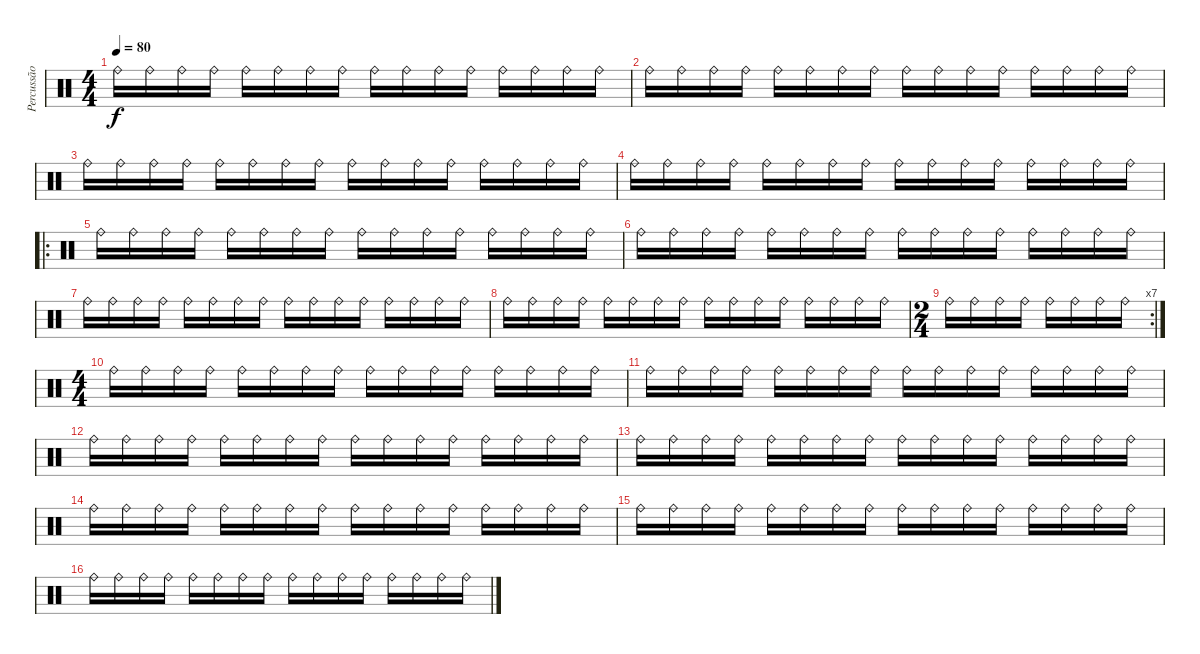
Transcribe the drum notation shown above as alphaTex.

\track ("Percussão" "Percussão") {instrument percussion}
\staff {score}
\articulation defaults
\ts (4 4)
\tempo 80
\clef neutral
\ks c "Ride (bell)".16{dy f} "Ride (bell)".16 "Ride (bell)".16 "Ride (bell)".16 "Ride (bell)".16 "Ride (bell)".16 "Ride (bell)".16 "Ride (bell)".16 "Ride (bell)".16 "Ride (bell)".16 "Ride (bell)".16 "Ride (bell)".16 "Ride (bell)".16 "Ride (bell)".16 "Ride (bell)".16 "Ride (bell)".16
|
"Ride (bell)".16 "Ride (bell)".16 "Ride (bell)".16 "Ride (bell)".16 "Ride (bell)".16 "Ride (bell)".16 "Ride (bell)".16 "Ride (bell)".16 "Ride (bell)".16 "Ride (bell)".16 "Ride (bell)".16 "Ride (bell)".16 "Ride (bell)".16 "Ride (bell)".16 "Ride (bell)".16 "Ride (bell)".16 |
"Ride (bell)".16 "Ride (bell)".16 "Ride (bell)".16 "Ride (bell)".16 "Ride (bell)".16 "Ride (bell)".16 "Ride (bell)".16 "Ride (bell)".16 "Ride (bell)".16 "Ride (bell)".16 "Ride (bell)".16 "Ride (bell)".16 "Ride (bell)".16 "Ride (bell)".16 "Ride (bell)".16 "Ride (bell)".16 |
"Ride (bell)".16 "Ride (bell)".16 "Ride (bell)".16 "Ride (bell)".16 "Ride (bell)".16 "Ride (bell)".16 "Ride (bell)".16 "Ride (bell)".16 "Ride (bell)".16 "Ride (bell)".16 "Ride (bell)".16 "Ride (bell)".16 "Ride (bell)".16 "Ride (bell)".16 "Ride (bell)".16 "Ride (bell)".16 |
\ro "Ride (bell)".16 "Ride (bell)".16 "Ride (bell)".16 "Ride (bell)".16 "Ride (bell)".16 "Ride (bell)".16 "Ride (bell)".16 "Ride (bell)".16 "Ride (bell)".16 "Ride (bell)".16 "Ride (bell)".16 "Ride (bell)".16 "Ride (bell)".16 "Ride (bell)".16 "Ride (bell)".16 "Ride (bell)".16
|
"Ride (bell)".16 "Ride (bell)".16 "Ride (bell)".16 "Ride (bell)".16 "Ride (bell)".16 "Ride (bell)".16 "Ride (bell)".16 "Ride (bell)".16 "Ride (bell)".16 "Ride (bell)".16 "Ride (bell)".16 "Ride (bell)".16 "Ride (bell)".16 "Ride (bell)".16 "Ride (bell)".16 "Ride (bell)".16 |
"Ride (bell)".16 "Ride (bell)".16 "Ride (bell)".16 "Ride (bell)".16 "Ride (bell)".16 "Ride (bell)".16 "Ride (bell)".16 "Ride (bell)".16 "Ride (bell)".16 "Ride (bell)".16 "Ride (bell)".16 "Ride (bell)".16 "Ride (bell)".16 "Ride (bell)".16 "Ride (bell)".16 "Ride (bell)".16 |
"Ride (bell)".16 "Ride (bell)".16 "Ride (bell)".16 "Ride (bell)".16 "Ride (bell)".16 "Ride (bell)".16 "Ride (bell)".16 "Ride (bell)".16 "Ride (bell)".16 "Ride (bell)".16 "Ride (bell)".16 "Ride (bell)".16 "Ride (bell)".16 "Ride (bell)".16 "Ride (bell)".16 "Ride (bell)".16 |
\rc 7
\ts (2 4)
"Ride (bell)".16 "Ride (bell)".16 "Ride (bell)".16 "Ride (bell)".16 "Ride (bell)".16 "Ride (bell)".16 "Ride (bell)".16 "Ride (bell)".16 |
\ts (4 4)
"Ride (bell)".16 "Ride (bell)".16 "Ride (bell)".16 "Ride (bell)".16 "Ride (bell)".16 "Ride (bell)".16 "Ride (bell)".16 "Ride (bell)".16 "Ride (bell)".16 "Ride (bell)".16 "Ride (bell)".16 "Ride (bell)".16 "Ride (bell)".16 "Ride (bell)".16 "Ride (bell)".16 "Ride (bell)".16 |
"Ride (bell)".16 "Ride (bell)".16 "Ride (bell)".16 "Ride (bell)".16 "Ride (bell)".16 "Ride (bell)".16 "Ride (bell)".16 "Ride (bell)".16 "Ride (bell)".16 "Ride (bell)".16 "Ride (bell)".16 "Ride (bell)".16 "Ride (bell)".16 "Ride (bell)".16 "Ride (bell)".16 "Ride (bell)".16 |
"Ride (bell)".16 "Ride (bell)".16 "Ride (bell)".16 "Ride (bell)".16 "Ride (bell)".16 "Ride (bell)".16 "Ride (bell)".16 "Ride (bell)".16 "Ride (bell)".16 "Ride (bell)".16 "Ride (bell)".16 "Ride (bell)".16 "Ride (bell)".16 "Ride (bell)".16 "Ride (bell)".16 "Ride (bell)".16 |
"Ride (bell)".16 "Ride (bell)".16 "Ride (bell)".16 "Ride (bell)".16 "Ride (bell)".16 "Ride (bell)".16 "Ride (bell)".16 "Ride (bell)".16 "Ride (bell)".16 "Ride (bell)".16 "Ride (bell)".16 "Ride (bell)".16 "Ride (bell)".16 "Ride (bell)".16 "Ride (bell)".16 "Ride (bell)".16 |
"Ride (bell)".16 "Ride (bell)".16 "Ride (bell)".16 "Ride (bell)".16 "Ride (bell)".16 "Ride (bell)".16 "Ride (bell)".16 "Ride (bell)".16 "Ride (bell)".16 "Ride (bell)".16 "Ride (bell)".16 "Ride (bell)".16 "Ride (bell)".16 "Ride (bell)".16 "Ride (bell)".16 "Ride (bell)".16 |
"Ride (bell)".16 "Ride (bell)".16 "Ride (bell)".16 "Ride (bell)".16 "Ride (bell)".16 "Ride (bell)".16 "Ride (bell)".16 "Ride (bell)".16 "Ride (bell)".16 "Ride (bell)".16 "Ride (bell)".16 "Ride (bell)".16 "Ride (bell)".16 "Ride (bell)".16 "Ride (bell)".16 "Ride (bell)".16 |
"Ride (bell)".16 "Ride (bell)".16 "Ride (bell)".16 "Ride (bell)".16 "Ride (bell)".16 "Ride (bell)".16 "Ride (bell)".16 "Ride (bell)".16 "Ride (bell)".16 "Ride (bell)".16 "Ride (bell)".16 "Ride (bell)".16 "Ride (bell)".16 "Ride (bell)".16 "Ride (bell)".16 "Ride (bell)".16
